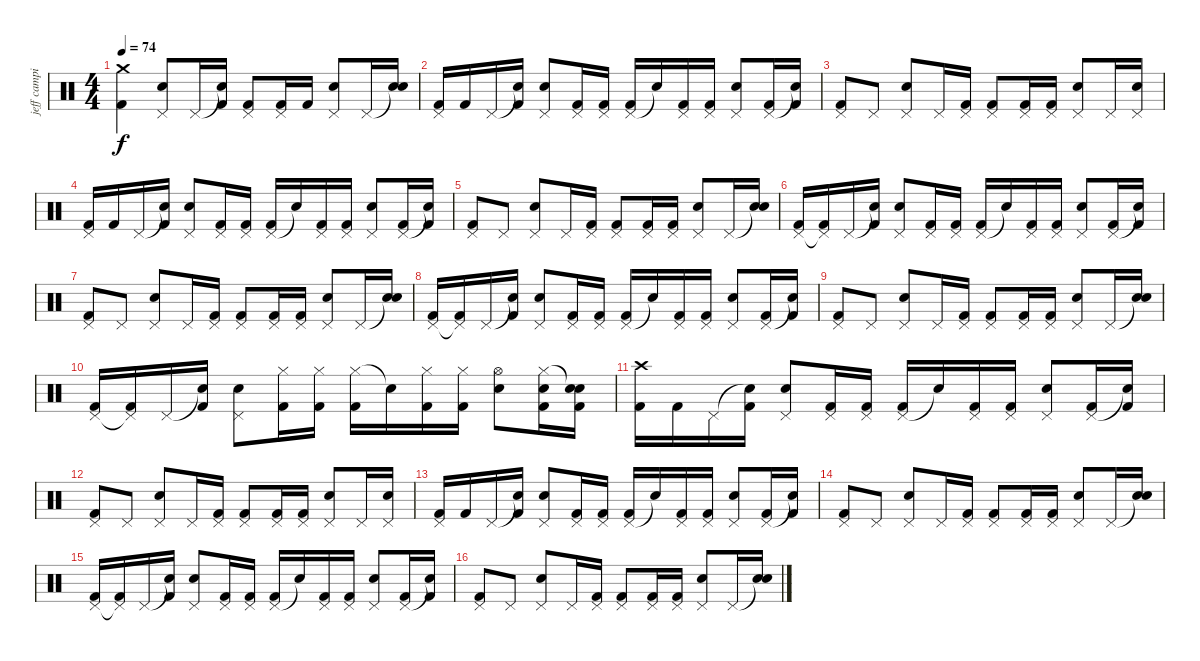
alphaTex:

\track ("jeff campitelli" "jeff campi") {instrument percussion}
\staff {score}
\articulation defaults
\ts (4 4)
\tempo 74
\clef neutral
\ks c
("Crash medium (hit)" "Kick (hit) 2").4{dy f} ("Pedal Hi-Hat (hit)" "Electric Snare (hit)").8 "Pedal Hi-Hat (hit)".16 ("Snare (hit)"{t} "Kick (hit) 2").16 ("Pedal Hi-Hat (hit)" "Kick (hit) 2").8 ("Pedal Hi-Hat (hit)" "Kick (hit) 2").16 "Kick (hit) 2".16 ("Pedal Hi-Hat (hit)" "Electric Snare (hit)").8 "Pedal Hi-Hat (hit)".16 ("Snare (hit)"{t} "Electric Snare (hit)").16 |
("Pedal Hi-Hat (hit)" "Kick (hit) 2").16 "Kick (hit) 2".16 "Pedal Hi-Hat (hit)".16 ("Snare (hit)"{t} "Kick (hit) 2").16 ("Pedal Hi-Hat (hit)" "Electric Snare (hit)").8 ("Pedal Hi-Hat (hit)" "Kick (hit) 2").16 ("Pedal Hi-Hat (hit)" "Kick (hit) 2").16 ("Pedal Hi-Hat (hit)" "Kick (hit) 2").16 "Snare (hit)"{t}.16 ("Pedal Hi-Hat (hit)" "Kick (hit) 2").16 ("Pedal Hi-Hat (hit)" "Kick (hit) 2").16 ("Pedal Hi-Hat (hit)" "Electric Snare (hit)").8 ("Pedal Hi-Hat (hit)" "Kick (hit) 2").16 ("Snare (hit)"{t} "Kick (hit) 2").16 |
("Pedal Hi-Hat (hit)" "Kick (hit) 2").8 "Pedal Hi-Hat (hit)".8 ("Pedal Hi-Hat (hit)" "Electric Snare (hit)").8 "Pedal Hi-Hat (hit)".16 ("Pedal Hi-Hat (hit)" "Kick (hit) 2").16 ("Pedal Hi-Hat (hit)" "Kick (hit) 2").8 ("Pedal Hi-Hat (hit)" "Kick (hit) 2").16 ("Pedal Hi-Hat (hit)" "Kick (hit) 2").16 ("Pedal Hi-Hat (hit)" "Electric Snare (hit)").8 "Pedal Hi-Hat (hit)".16 ("Pedal Hi-Hat (hit)" "Electric Snare (hit)").16 |
("Pedal Hi-Hat (hit)" "Kick (hit) 2").16 "Kick (hit) 2".16 "Pedal Hi-Hat (hit)".16 ("Snare (hit)"{t} "Kick (hit) 2").16 ("Pedal Hi-Hat (hit)" "Electric Snare (hit)").8 ("Pedal Hi-Hat (hit)" "Kick (hit) 2").16 ("Pedal Hi-Hat (hit)" "Kick (hit) 2").16 ("Pedal Hi-Hat (hit)" "Kick (hit) 2").16 "Snare (hit)"{t}.16 ("Pedal Hi-Hat (hit)" "Kick (hit) 2").16 ("Pedal Hi-Hat (hit)" "Kick (hit) 2").16 ("Pedal Hi-Hat (hit)" "Electric Snare (hit)").8 ("Pedal Hi-Hat (hit)" "Kick (hit) 2").16 ("Snare (hit)"{t} "Kick (hit) 2").16 |
("Pedal Hi-Hat (hit)" "Kick (hit) 2").8 "Pedal Hi-Hat (hit)".8 ("Pedal Hi-Hat (hit)" "Electric Snare (hit)").8 "Pedal Hi-Hat (hit)".16 ("Pedal Hi-Hat (hit)" "Kick (hit) 2").16 ("Pedal Hi-Hat (hit)" "Kick (hit) 2").8 ("Pedal Hi-Hat (hit)" "Kick (hit) 2").16 ("Pedal Hi-Hat (hit)" "Kick (hit) 2").16 ("Pedal Hi-Hat (hit)" "Electric Snare (hit)").8 "Pedal Hi-Hat (hit)".16 ("Snare (hit)"{t} "Electric Snare (hit)").16 |
("Pedal Hi-Hat (hit)" "Kick (hit) 2").16 ("Pedal Hi-Hat (hit)"{t} "Kick (hit) 2").16 "Pedal Hi-Hat (hit)".16 ("Snare (hit)"{t} "Kick (hit) 2").16 ("Pedal Hi-Hat (hit)" "Electric Snare (hit)").8 ("Pedal Hi-Hat (hit)" "Kick (hit) 2").16 ("Pedal Hi-Hat (hit)" "Kick (hit) 2").16 ("Pedal Hi-Hat (hit)" "Kick (hit) 2").16 "Snare (hit)"{t}.16 ("Pedal Hi-Hat (hit)" "Kick (hit) 2").16 ("Pedal Hi-Hat (hit)" "Kick (hit) 2").16 ("Pedal Hi-Hat (hit)" "Electric Snare (hit)").8 ("Pedal Hi-Hat (hit)" "Kick (hit) 2").16 ("Snare (hit)"{t} "Kick (hit) 2").16 |
("Pedal Hi-Hat (hit)" "Kick (hit) 2").8 "Pedal Hi-Hat (hit)".8 ("Pedal Hi-Hat (hit)" "Electric Snare (hit)").8 "Pedal Hi-Hat (hit)".16 ("Pedal Hi-Hat (hit)" "Kick (hit) 2").16 ("Pedal Hi-Hat (hit)" "Kick (hit) 2").8 ("Pedal Hi-Hat (hit)" "Kick (hit) 2").16 ("Pedal Hi-Hat (hit)" "Kick (hit) 2").16 ("Pedal Hi-Hat (hit)" "Electric Snare (hit)").8 "Pedal Hi-Hat (hit)".16 ("Snare (hit)"{t} "Electric Snare (hit)").16 |
("Pedal Hi-Hat (hit)" "Kick (hit) 2").16 ("Pedal Hi-Hat (hit)"{t} "Kick (hit) 2").16 "Pedal Hi-Hat (hit)".16 ("Snare (hit)"{t} "Kick (hit) 2").16 ("Pedal Hi-Hat (hit)" "Electric Snare (hit)").8 ("Pedal Hi-Hat (hit)" "Kick (hit) 2").16 ("Pedal Hi-Hat (hit)" "Kick (hit) 2").16 ("Pedal Hi-Hat (hit)" "Kick (hit) 2").16 "Snare (hit)"{t}.16 ("Pedal Hi-Hat (hit)" "Kick (hit) 2").16 ("Pedal Hi-Hat (hit)" "Kick (hit) 2").16 ("Pedal Hi-Hat (hit)" "Electric Snare (hit)").8 ("Pedal Hi-Hat (hit)" "Kick (hit) 2").16 ("Snare (hit)"{t} "Kick (hit) 2").16 |
("Pedal Hi-Hat (hit)" "Kick (hit) 2").8 "Pedal Hi-Hat (hit)".8 ("Pedal Hi-Hat (hit)" "Electric Snare (hit)").8 "Pedal Hi-Hat (hit)".16 ("Pedal Hi-Hat (hit)" "Kick (hit) 2").16 ("Pedal Hi-Hat (hit)" "Kick (hit) 2").8 ("Pedal Hi-Hat (hit)" "Kick (hit) 2").16 ("Pedal Hi-Hat (hit)" "Kick (hit) 2").16 ("Pedal Hi-Hat (hit)" "Electric Snare (hit)").8 "Pedal Hi-Hat (hit)".16 ("Snare (hit)"{t} "Electric Snare (hit)").16 |
("Pedal Hi-Hat (hit)" "Kick (hit) 2").16 ("Pedal Hi-Hat (hit)"{t} "Kick (hit) 2").16 "Pedal Hi-Hat (hit)".16 ("Snare (hit)"{t} "Kick (hit) 2").16 ("Pedal Hi-Hat (hit)" "Electric Snare (hit)").8 ("Hi-Hat (closed)" "Kick (hit) 2").16 ("Hi-Hat (closed)" "Kick (hit) 2").16 ("Hi-Hat (closed)" "Kick (hit) 2").16 "Snare (hit)"{t}.16 ("Hi-Hat (closed)" "Kick (hit) 2").16 ("Hi-Hat (closed)" "Kick (hit) 2").16 ("Hi-Hat (open)" "Electric Snare (hit)").8 ("Hi-Hat (closed)" "Electric Snare (hit)" "Kick (hit) 2").16 ("Snare (hit)"{t} "Electric Snare (hit)" "Kick (hit) 2").16 |
("Crash high (hit)" "Kick (hit) 2").16 "Kick (hit) 2".16 "Pedal Hi-Hat (hit)".16 ("Snare (hit)"{t} "Kick (hit) 2").16 ("Pedal Hi-Hat (hit)" "Electric Snare (hit)").8 ("Pedal Hi-Hat (hit)" "Kick (hit) 2").16 ("Pedal Hi-Hat (hit)" "Kick (hit) 2").16 ("Pedal Hi-Hat (hit)" "Kick (hit) 2").16 "Snare (hit)"{t}.16 ("Pedal Hi-Hat (hit)" "Kick (hit) 2").16 ("Pedal Hi-Hat (hit)" "Kick (hit) 2").16 ("Pedal Hi-Hat (hit)" "Electric Snare (hit)").8 ("Pedal Hi-Hat (hit)" "Kick (hit) 2").16 ("Snare (hit)"{t} "Kick (hit) 2").16 |
("Pedal Hi-Hat (hit)" "Kick (hit) 2").8 "Pedal Hi-Hat (hit)".8 ("Pedal Hi-Hat (hit)" "Electric Snare (hit)").8 "Pedal Hi-Hat (hit)".16 ("Pedal Hi-Hat (hit)" "Kick (hit) 2").16 ("Pedal Hi-Hat (hit)" "Kick (hit) 2").8 ("Pedal Hi-Hat (hit)" "Kick (hit) 2").16 ("Pedal Hi-Hat (hit)" "Kick (hit) 2").16 ("Pedal Hi-Hat (hit)" "Electric Snare (hit)").8 "Pedal Hi-Hat (hit)".16 ("Pedal Hi-Hat (hit)" "Electric Snare (hit)").16 |
("Pedal Hi-Hat (hit)" "Kick (hit) 2").16 "Kick (hit) 2".16 "Pedal Hi-Hat (hit)".16 ("Snare (hit)"{t} "Kick (hit) 2").16 ("Pedal Hi-Hat (hit)" "Electric Snare (hit)").8 ("Pedal Hi-Hat (hit)" "Kick (hit) 2").16 ("Pedal Hi-Hat (hit)" "Kick (hit) 2").16 ("Pedal Hi-Hat (hit)" "Kick (hit) 2").16 "Snare (hit)"{t}.16 ("Pedal Hi-Hat (hit)" "Kick (hit) 2").16 ("Pedal Hi-Hat (hit)" "Kick (hit) 2").16 ("Pedal Hi-Hat (hit)" "Electric Snare (hit)").8 ("Pedal Hi-Hat (hit)" "Kick (hit) 2").16 ("Snare (hit)"{t} "Kick (hit) 2").16 |
("Pedal Hi-Hat (hit)" "Kick (hit) 2").8 "Pedal Hi-Hat (hit)".8 ("Pedal Hi-Hat (hit)" "Electric Snare (hit)").8 "Pedal Hi-Hat (hit)".16 ("Pedal Hi-Hat (hit)" "Kick (hit) 2").16 ("Pedal Hi-Hat (hit)" "Kick (hit) 2").8 ("Pedal Hi-Hat (hit)" "Kick (hit) 2").16 ("Pedal Hi-Hat (hit)" "Kick (hit) 2").16 ("Pedal Hi-Hat (hit)" "Electric Snare (hit)").8 "Pedal Hi-Hat (hit)".16 ("Snare (hit)"{t} "Electric Snare (hit)").16 |
("Pedal Hi-Hat (hit)" "Kick (hit) 2").16 ("Pedal Hi-Hat (hit)"{t} "Kick (hit) 2").16 "Pedal Hi-Hat (hit)".16 ("Snare (hit)"{t} "Kick (hit) 2").16 ("Pedal Hi-Hat (hit)" "Electric Snare (hit)").8 ("Pedal Hi-Hat (hit)" "Kick (hit) 2").16 ("Pedal Hi-Hat (hit)" "Kick (hit) 2").16 ("Pedal Hi-Hat (hit)" "Kick (hit) 2").16 "Snare (hit)"{t}.16 ("Pedal Hi-Hat (hit)" "Kick (hit) 2").16 ("Pedal Hi-Hat (hit)" "Kick (hit) 2").16 ("Pedal Hi-Hat (hit)" "Electric Snare (hit)").8 ("Pedal Hi-Hat (hit)" "Kick (hit) 2").16 ("Snare (hit)"{t} "Kick (hit) 2").16 |
("Pedal Hi-Hat (hit)" "Kick (hit) 2").8 "Pedal Hi-Hat (hit)".8 ("Pedal Hi-Hat (hit)" "Electric Snare (hit)").8 "Pedal Hi-Hat (hit)".16 ("Pedal Hi-Hat (hit)" "Kick (hit) 2").16 ("Pedal Hi-Hat (hit)" "Kick (hit) 2").8 ("Pedal Hi-Hat (hit)" "Kick (hit) 2").16 ("Pedal Hi-Hat (hit)" "Kick (hit) 2").16 ("Pedal Hi-Hat (hit)" "Electric Snare (hit)").8 "Pedal Hi-Hat (hit)".16 ("Snare (hit)"{t} "Electric Snare (hit)").16
